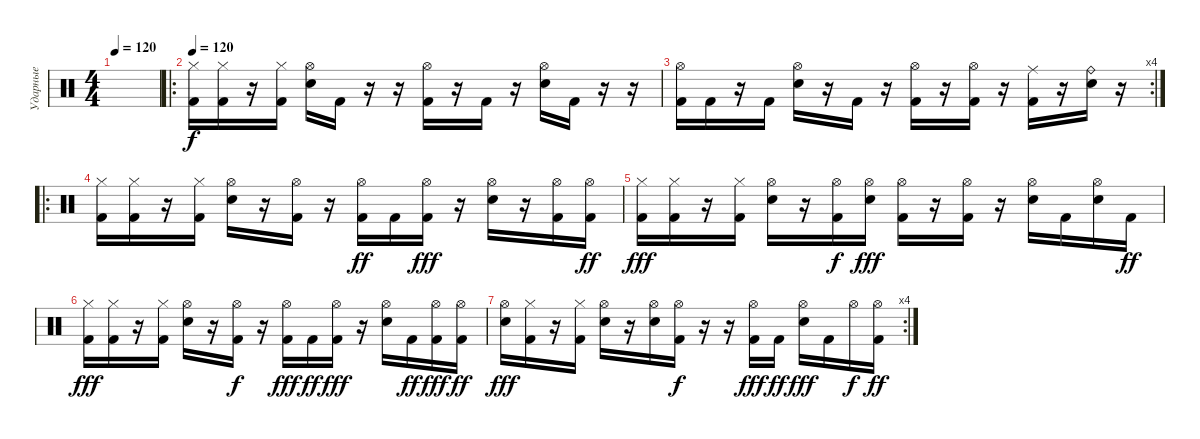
\track ("Ударные" "Ударные") {instrument percussion}
\staff {score}
\articulation defaults
\ts (4 4)
\tempo 120
\clef neutral
\ks c
|
\ro
\tempo 120
("Hi-Hat (closed)" "Kick (hit) 2").16 ("Hi-Hat (closed)" "Kick (hit) 2").16 r.16 ("Hi-Hat (closed)" "Kick (hit) 2").16 ("Hi-Hat (open)" "Electric Snare (hit)").16 "Kick (hit) 2".16 r.16 r.16 ("Hi-Hat (open)" "Kick (hit) 2").16 r.16 "Kick (hit) 2".16 r.16 ("Hi-Hat (open)" "Electric Snare (hit)").16 "Kick (hit) 2".16 r.16 r.16 |
\rc 4
("Hi-Hat (open)" "Kick (hit) 2").16 "Kick (hit) 2".16 r.16 "Kick (hit) 2".16 ("Hi-Hat (open)" "Electric Snare (hit)").16 r.16 "Kick (hit) 2".16 r.16 ("Hi-Hat (open)" "Kick (hit) 2").16 r.16 ("Hi-Hat (open)" "Kick (hit) 2").16 r.16 ("Ride (middle)" "Kick (hit) 2").16 r.16 ("Ride (bell)" "Electric Snare (hit)").16 r.16 |
\ro
("Hi-Hat (closed)" "Kick (hit) 2").16 ("Hi-Hat (closed)" "Kick (hit) 2").16 r.16 ("Hi-Hat (closed)" "Kick (hit) 2").16 ("Hi-Hat (open)" "Electric Snare (hit)").16 r.16 ("Hi-Hat (open)" "Kick (hit) 2").16{dy f} r.16 ("Hi-Hat (open)" "Kick (hit) 2").16{dy ff} "Kick (hit) 2".16 ("Hi-Hat (open)" "Kick (hit) 2").16{dy fff} r.16 ("Hi-Hat (open)" "Electric Snare (hit)").16 r.16 ("Hi-Hat (open)" "Kick (hit) 2").16 ("Hi-Hat (open)" "Kick (hit) 2").16{dy ff} |
("Hi-Hat (closed)" "Kick (hit) 2").16{dy fff} ("Hi-Hat (closed)" "Kick (hit) 2").16 r.16 ("Hi-Hat (closed)" "Kick (hit) 2").16 ("Hi-Hat (open)" "Electric Snare (hit)").16 r.16 ("Hi-Hat (open)" "Kick (hit) 2").16{dy f} ("Hi-Hat (open)" "Electric Snare (hit)").16{dy fff} ("Hi-Hat (open)" "Kick (hit) 2").16 r.16 ("Hi-Hat (open)" "Kick (hit) 2").16 r.16 ("Hi-Hat (open)" "Electric Snare (hit)").16 "Kick (hit) 2".16 ("Hi-Hat (open)" "Electric Snare (hit)").16 "Kick (hit) 2".16{dy ff} |
("Hi-Hat (closed)" "Kick (hit) 2").16{dy fff} ("Hi-Hat (closed)" "Kick (hit) 2").16 r.16 ("Hi-Hat (closed)" "Kick (hit) 2").16 ("Hi-Hat (open)" "Electric Snare (hit)").16 r.16 ("Hi-Hat (open)" "Kick (hit) 2").16{dy f} r.16 ("Hi-Hat (open)" "Kick (hit) 2").16{dy fff} "Kick (hit) 2".16{dy ff} ("Hi-Hat (open)" "Kick (hit) 2").16{dy fff} r.16 ("Hi-Hat (open)" "Electric Snare (hit)").16 "Kick (hit) 2".16{dy ff} ("Hi-Hat (open)" "Kick (hit) 2").16{dy fff} ("Hi-Hat (open)" "Kick (hit) 2").16{dy ff} |
\rc 4
("Hi-Hat (open)" "Electric Snare (hit)").16{dy fff} ("Hi-Hat (closed)" "Kick (hit) 2").16 r.16 ("Hi-Hat (closed)" "Kick (hit) 2").16 ("Hi-Hat (open)" "Electric Snare (hit)").16 r.16 ("Hi-Hat (open)" "Electric Snare (hit)").16 ("Hi-Hat (open)" "Kick (hit) 2").16{dy f} r.16 r.16 ("Hi-Hat (open)" "Kick (hit) 2").16{dy fff} "Kick (hit) 2".16{dy ff} ("Hi-Hat (open)" "Electric Snare (hit)").16{dy fff} "Kick (hit) 2".16 "Hi-Hat (open)".16{dy f} ("Hi-Hat (open)" "Kick (hit) 2").16{dy ff}
